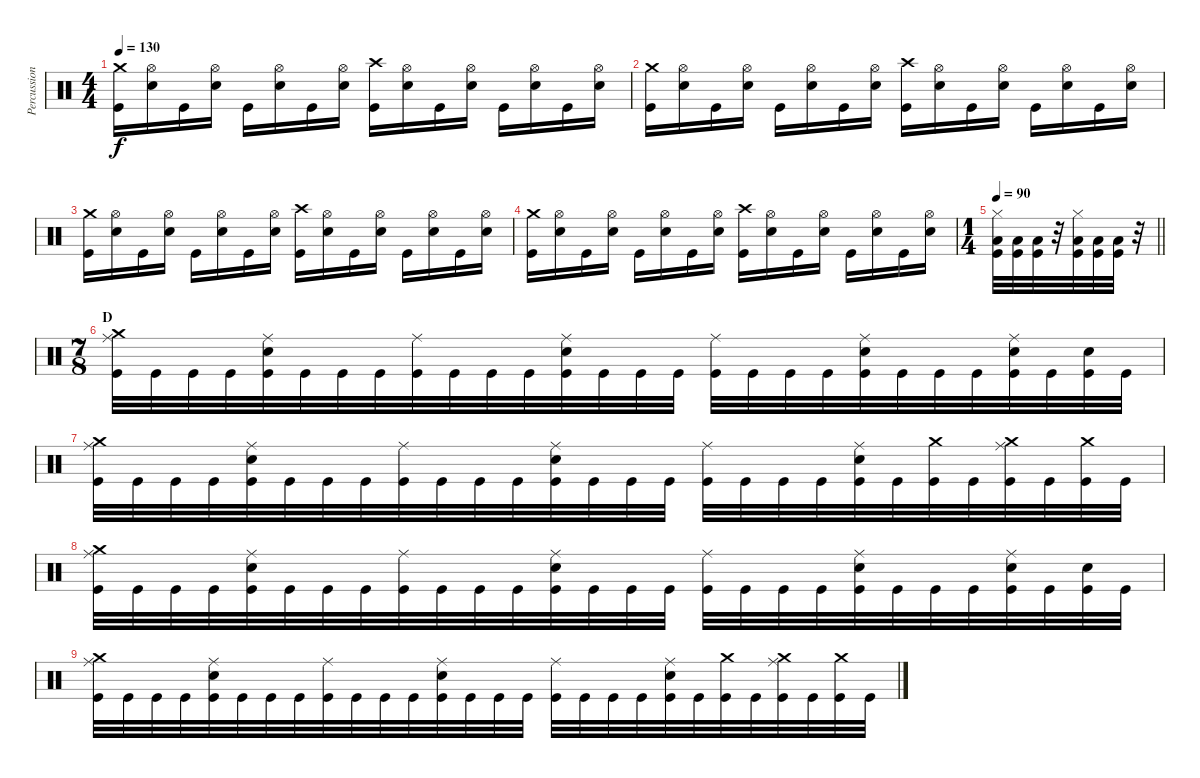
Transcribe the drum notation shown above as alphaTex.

\track ("Percussion" "Percussion") {instrument percussion}
\staff {score}
\articulation defaults
\ts (4 4)
\tempo 130
\clef neutral
\ks c
("Kick (hit)" "Crash medium (hit)").16{dy f} ("Snare (hit) 2" "Hi-Hat (open)").16 "Kick (hit)".16 ("Snare (hit) 2" "Hi-Hat (open)").16 "Kick (hit)".16 ("Snare (hit) 2" "Hi-Hat (open)").16 "Kick (hit)".16 ("Snare (hit) 2" "Hi-Hat (open)").16 ("Kick (hit)" "Crash high (hit)").16 ("Snare (hit) 2" "Hi-Hat (open)").16 "Kick (hit)".16 ("Snare (hit) 2" "Hi-Hat (open)").16 "Kick (hit)".16 ("Snare (hit) 2" "Hi-Hat (open)").16 "Kick (hit)".16 ("Snare (hit) 2" "Hi-Hat (open)").16 |
("Kick (hit)" "Crash medium (hit)").16 ("Snare (hit) 2" "Hi-Hat (open)").16 "Kick (hit)".16 ("Snare (hit) 2" "Hi-Hat (open)").16 "Kick (hit)".16 ("Snare (hit) 2" "Hi-Hat (open)").16 "Kick (hit)".16 ("Snare (hit) 2" "Hi-Hat (open)").16 ("Kick (hit)" "Crash high (hit)").16 ("Snare (hit) 2" "Hi-Hat (open)").16 "Kick (hit)".16 ("Snare (hit) 2" "Hi-Hat (open)").16 "Kick (hit)".16 ("Snare (hit) 2" "Hi-Hat (open)").16 "Kick (hit)".16 ("Snare (hit) 2" "Hi-Hat (open)").16 |
("Kick (hit)" "Crash medium (hit)").16 ("Snare (hit) 2" "Hi-Hat (open)").16 "Kick (hit)".16 ("Snare (hit) 2" "Hi-Hat (open)").16 "Kick (hit)".16 ("Snare (hit) 2" "Hi-Hat (open)").16 "Kick (hit)".16 ("Snare (hit) 2" "Hi-Hat (open)").16 ("Kick (hit)" "Crash high (hit)").16 ("Snare (hit) 2" "Hi-Hat (open)").16 "Kick (hit)".16 ("Snare (hit) 2" "Hi-Hat (open)").16 "Kick (hit)".16 ("Snare (hit) 2" "Hi-Hat (open)").16 "Kick (hit)".16 ("Snare (hit) 2" "Hi-Hat (open)").16 |
("Kick (hit)" "Crash medium (hit)").16 ("Snare (hit) 2" "Hi-Hat (open)").16 "Kick (hit)".16 ("Snare (hit) 2" "Hi-Hat (open)").16 "Kick (hit)".16 ("Snare (hit) 2" "Hi-Hat (open)").16 "Kick (hit)".16 ("Snare (hit) 2" "Hi-Hat (open)").16 ("Kick (hit)" "Crash high (hit)").16 ("Snare (hit) 2" "Hi-Hat (open)").16 "Kick (hit)".16 ("Snare (hit) 2" "Hi-Hat (open)").16 "Kick (hit)".16 ("Snare (hit) 2" "Hi-Hat (open)").16 "Kick (hit)".16 ("Snare (hit) 2" "Hi-Hat (open)").16 |
\ts (1 4)
\tempo 90
\barLineRight lightlight
("Kick (hit)" "Low Floor Tom (hit)" "Hi-Hat (closed)").32 ("Kick (hit)" "Low Floor Tom (hit)").32 ("Kick (hit)" "Low Floor Tom (hit)").32 r.32 ("Kick (hit)" "Low Floor Tom (hit)" "Hi-Hat (closed)").32 ("Kick (hit)" "Low Floor Tom (hit)").32 ("Kick (hit)" "Low Floor Tom (hit)").32 r.32 |
\ts (7 8)
\section ("" "D")
("Kick (hit)" "Ride (middle)" "Crash medium (hit)").32 "Kick (hit)".32 "Kick (hit)".32 "Kick (hit)".32 ("Kick (hit)" "Ride (middle)" "Snare (hit) 2").32 "Kick (hit)".32 "Kick (hit)".32 "Kick (hit)".32 ("Kick (hit)" "Ride (middle)").32 "Kick (hit)".32 "Kick (hit)".32 "Kick (hit)".32 ("Kick (hit)" "Ride (middle)" "Snare (hit) 2").32 "Kick (hit)".32 "Kick (hit)".32 "Kick (hit)".32 ("Kick (hit)" "Ride (middle)").32 "Kick (hit)".32 "Kick (hit)".32 "Kick (hit)".32 ("Kick (hit)" "Ride (middle)" "Snare (hit) 2").32 "Kick (hit)".32 "Kick (hit)".32 "Kick (hit)".32 ("Kick (hit)" "Ride (middle)" "Snare (hit) 2").32 "Kick (hit)".32 ("Kick (hit)" "Snare (hit) 2").32 "Kick (hit)".32 |
("Kick (hit)" "Ride (middle)" "Crash medium (hit)").32 "Kick (hit)".32 "Kick (hit)".32 "Kick (hit)".32 ("Kick (hit)" "Ride (middle)" "Snare (hit) 2").32 "Kick (hit)".32 "Kick (hit)".32 "Kick (hit)".32 ("Kick (hit)" "Ride (middle)").32 "Kick (hit)".32 "Kick (hit)".32 "Kick (hit)".32 ("Kick (hit)" "Ride (middle)" "Snare (hit) 2").32 "Kick (hit)".32 "Kick (hit)".32 "Kick (hit)".32 ("Kick (hit)" "Ride (middle)").32 "Kick (hit)".32 "Kick (hit)".32 "Kick (hit)".32 ("Kick (hit)" "Ride (middle)" "Snare (hit) 2").32 "Kick (hit)".32 ("Kick (hit)" "Crash medium (hit)").32 "Kick (hit)".32 ("Kick (hit)" "Ride (middle)" "Crash medium (hit)").32 "Kick (hit)".32 ("Kick (hit)" "Crash medium (hit)").32 "Kick (hit)".32 |
("Kick (hit)" "Ride (middle)" "Crash medium (hit)").32 "Kick (hit)".32 "Kick (hit)".32 "Kick (hit)".32 ("Kick (hit)" "Ride (middle)" "Snare (hit) 2").32 "Kick (hit)".32 "Kick (hit)".32 "Kick (hit)".32 ("Kick (hit)" "Ride (middle)").32 "Kick (hit)".32 "Kick (hit)".32 "Kick (hit)".32 ("Kick (hit)" "Ride (middle)" "Snare (hit) 2").32 "Kick (hit)".32 "Kick (hit)".32 "Kick (hit)".32 ("Kick (hit)" "Ride (middle)").32 "Kick (hit)".32 "Kick (hit)".32 "Kick (hit)".32 ("Kick (hit)" "Ride (middle)" "Snare (hit) 2").32 "Kick (hit)".32 "Kick (hit)".32 "Kick (hit)".32 ("Kick (hit)" "Ride (middle)" "Snare (hit) 2").32 "Kick (hit)".32 ("Kick (hit)" "Snare (hit) 2").32 "Kick (hit)".32 |
("Kick (hit)" "Ride (middle)" "Crash medium (hit)").32 "Kick (hit)".32 "Kick (hit)".32 "Kick (hit)".32 ("Kick (hit)" "Ride (middle)" "Snare (hit) 2").32 "Kick (hit)".32 "Kick (hit)".32 "Kick (hit)".32 ("Kick (hit)" "Ride (middle)").32 "Kick (hit)".32 "Kick (hit)".32 "Kick (hit)".32 ("Kick (hit)" "Ride (middle)" "Snare (hit) 2").32 "Kick (hit)".32 "Kick (hit)".32 "Kick (hit)".32 ("Kick (hit)" "Ride (middle)").32 "Kick (hit)".32 "Kick (hit)".32 "Kick (hit)".32 ("Kick (hit)" "Ride (middle)" "Snare (hit) 2").32 "Kick (hit)".32 ("Kick (hit)" "Crash medium (hit)").32 "Kick (hit)".32 ("Kick (hit)" "Ride (middle)" "Crash medium (hit)").32 "Kick (hit)".32 ("Kick (hit)" "Crash medium (hit)").32 "Kick (hit)".32
